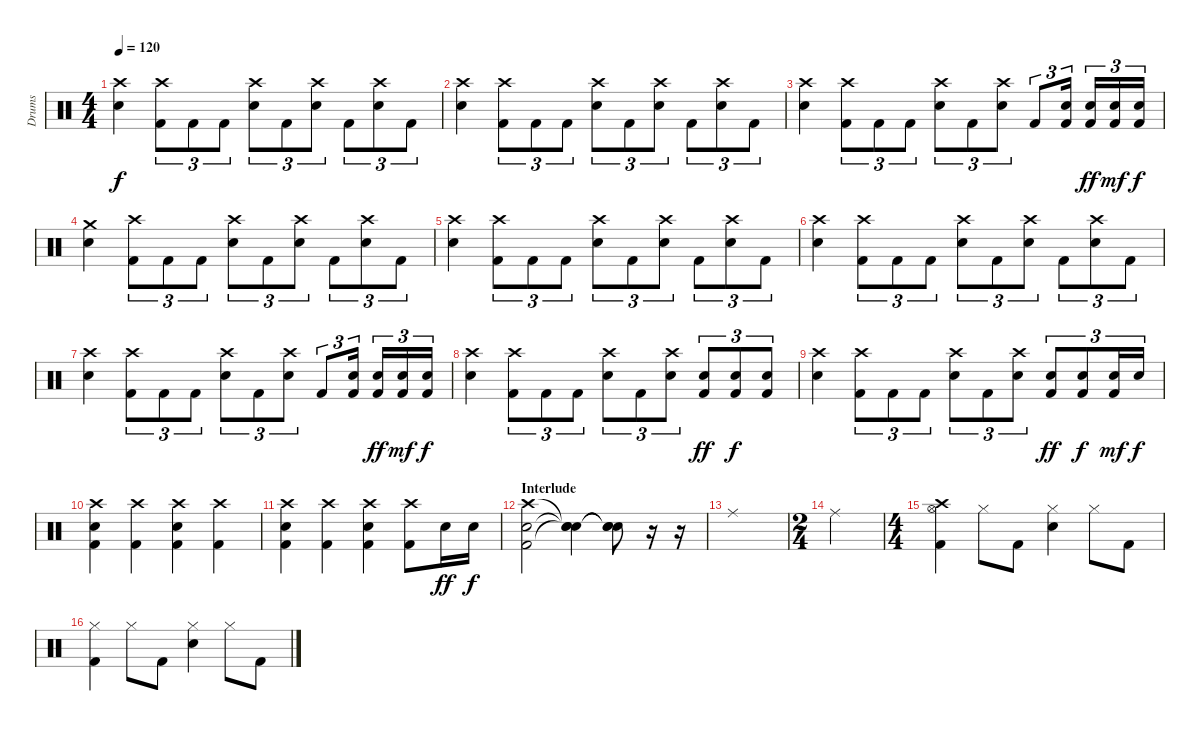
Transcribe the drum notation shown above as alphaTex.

\track ("Drums" "Drums") {instrument percussion}
\staff {score}
\articulation defaults
\ts (4 4)
\tempo 120
\clef neutral
\ks c
("Crash high (hit)" "Electric Snare (hit)").4{dy f} ("Crash high (hit)" "Kick (hit) 2").8{tu (3 2)} "Kick (hit) 2".8{tu (3 2)} "Kick (hit) 2".8{tu (3 2)} ("Crash high (hit)" "Electric Snare (hit)").8{tu (3 2)} "Kick (hit) 2".8{tu (3 2)} ("Crash high (hit)" "Electric Snare (hit)").8{tu (3 2)} "Kick (hit) 2".8{tu (3 2)} ("Crash high (hit)" "Electric Snare (hit)").8{tu (3 2)} "Kick (hit) 2".8{tu (3 2)} |
("Crash high (hit)" "Electric Snare (hit)").4 ("Crash high (hit)" "Kick (hit) 2").8{tu (3 2)} "Kick (hit) 2".8{tu (3 2)} "Kick (hit) 2".8{tu (3 2)} ("Crash high (hit)" "Electric Snare (hit)").8{tu (3 2)} "Kick (hit) 2".8{tu (3 2)} ("Crash high (hit)" "Electric Snare (hit)").8{tu (3 2)} "Kick (hit) 2".8{tu (3 2)} ("Crash high (hit)" "Electric Snare (hit)").8{tu (3 2)} "Kick (hit) 2".8{tu (3 2)} |
("Crash high (hit)" "Electric Snare (hit)").4 ("Crash high (hit)" "Kick (hit) 2").8{tu (3 2)} "Kick (hit) 2".8{tu (3 2)} "Kick (hit) 2".8{tu (3 2)} ("Crash high (hit)" "Electric Snare (hit)").8{tu (3 2)} "Kick (hit) 2".8{tu (3 2)} ("Crash high (hit)" "Electric Snare (hit)").8{tu (3 2)} "Kick (hit) 2".8{tu (3 2)} ("Electric Snare (hit)" "Kick (hit) 2").16{tu (3 2)} ("Electric Snare (hit)" "Kick (hit) 2").16{tu (3 2) dy ff} ("Electric Snare (hit)" "Kick (hit) 2").16{tu (3 2) dy mf} ("Electric Snare (hit)" "Kick (hit) 2").16{tu (3 2) dy f} |
("Crash medium (hit)" "Electric Snare (hit)").4 ("Crash high (hit)" "Kick (hit) 2").8{tu (3 2)} "Kick (hit) 2".8{tu (3 2)} "Kick (hit) 2".8{tu (3 2)} ("Crash high (hit)" "Electric Snare (hit)").8{tu (3 2)} "Kick (hit) 2".8{tu (3 2)} ("Crash high (hit)" "Electric Snare (hit)").8{tu (3 2)} "Kick (hit) 2".8{tu (3 2)} ("Crash high (hit)" "Electric Snare (hit)").8{tu (3 2)} "Kick (hit) 2".8{tu (3 2)} |
("Crash high (hit)" "Electric Snare (hit)").4 ("Crash high (hit)" "Kick (hit) 2").8{tu (3 2)} "Kick (hit) 2".8{tu (3 2)} "Kick (hit) 2".8{tu (3 2)} ("Crash high (hit)" "Electric Snare (hit)").8{tu (3 2)} "Kick (hit) 2".8{tu (3 2)} ("Crash high (hit)" "Electric Snare (hit)").8{tu (3 2)} "Kick (hit) 2".8{tu (3 2)} ("Crash high (hit)" "Electric Snare (hit)").8{tu (3 2)} "Kick (hit) 2".8{tu (3 2)} |
("Crash high (hit)" "Electric Snare (hit)").4 ("Crash high (hit)" "Kick (hit) 2").8{tu (3 2)} "Kick (hit) 2".8{tu (3 2)} "Kick (hit) 2".8{tu (3 2)} ("Crash high (hit)" "Electric Snare (hit)").8{tu (3 2)} "Kick (hit) 2".8{tu (3 2)} ("Crash high (hit)" "Electric Snare (hit)").8{tu (3 2)} "Kick (hit) 2".8{tu (3 2)} ("Crash high (hit)" "Electric Snare (hit)").8{tu (3 2)} "Kick (hit) 2".8{tu (3 2)} |
("Crash high (hit)" "Electric Snare (hit)").4 ("Crash high (hit)" "Kick (hit) 2").8{tu (3 2)} "Kick (hit) 2".8{tu (3 2)} "Kick (hit) 2".8{tu (3 2)} ("Crash high (hit)" "Electric Snare (hit)").8{tu (3 2)} "Kick (hit) 2".8{tu (3 2)} ("Crash high (hit)" "Electric Snare (hit)").8{tu (3 2)} "Kick (hit) 2".8{tu (3 2)} ("Electric Snare (hit)" "Kick (hit) 2").16{tu (3 2)} ("Electric Snare (hit)" "Kick (hit) 2").16{tu (3 2) dy ff} ("Electric Snare (hit)" "Kick (hit) 2").16{tu (3 2) dy mf} ("Electric Snare (hit)" "Kick (hit) 2").16{tu (3 2) dy f} |
("Crash high (hit)" "Electric Snare (hit)").4 ("Crash high (hit)" "Kick (hit) 2").8{tu (3 2)} "Kick (hit) 2".8{tu (3 2)} "Kick (hit) 2".8{tu (3 2)} ("Crash high (hit)" "Electric Snare (hit)").8{tu (3 2)} "Kick (hit) 2".8{tu (3 2)} ("Crash high (hit)" "Electric Snare (hit)").8{tu (3 2)} ("Electric Snare (hit)" "Kick (hit) 2").8{tu (3 2) dy ff} ("Electric Snare (hit)" "Kick (hit) 2").8{tu (3 2) dy f} ("Electric Snare (hit)" "Kick (hit) 2").8{tu (3 2)} |
("Crash high (hit)" "Electric Snare (hit)").4 ("Crash high (hit)" "Kick (hit) 2").8{tu (3 2)} "Kick (hit) 2".8{tu (3 2)} "Kick (hit) 2".8{tu (3 2)} ("Crash high (hit)" "Electric Snare (hit)").8{tu (3 2)} "Kick (hit) 2".8{tu (3 2)} ("Crash high (hit)" "Electric Snare (hit)").8{tu (3 2)} ("Electric Snare (hit)" "Kick (hit) 2").8{tu (3 2) dy ff} ("Electric Snare (hit)" "Kick (hit) 2").8{tu (3 2) dy f} ("Electric Snare (hit)" "Kick (hit) 2").16{tu (3 2) dy mf} "Electric Snare (hit)".16{tu (3 2) dy f} |
("Crash high (hit)" "Electric Snare (hit)" "Kick (hit) 2").4 ("Crash high (hit)" "Kick (hit) 2").4 ("Crash high (hit)" "Electric Snare (hit)" "Kick (hit) 2").4 ("Crash high (hit)" "Kick (hit) 2").4 |
("Crash high (hit)" "Electric Snare (hit)" "Kick (hit) 2").4 ("Crash high (hit)" "Kick (hit) 2").4 ("Crash high (hit)" "Electric Snare (hit)" "Kick (hit) 2").4 ("Crash high (hit)" "Kick (hit) 2").8 "Electric Snare (hit)".16{dy ff} "Electric Snare (hit)".16{dy f} |
\section ("" "Interlude")
("Crash high (hit)" "Electric Snare (hit)" "Kick (hit) 2").2 ("Snare (hit)"{t} "Snare (hit)"{t} "Snare (hit)"{t}).4 ("Snare (hit)"{t} "Electric Snare (hit)"{t} "Snare (hit)"{t}).8 r.16 r.16 |
"Ride (middle)".1 |
\ts (2 4)
"Ride (middle)".2 |
\ts (4 4)
("Hi-Hat (open)" "Crash high (hit)" "Kick (hit) 2").4 "Hi-Hat (closed)".8 "Kick (hit) 2".8 ("Hi-Hat (closed)" "Electric Snare (hit)").4 "Hi-Hat (closed)".8 "Kick (hit) 2".8 |
("Hi-Hat (closed)" "Kick (hit) 2").4 "Hi-Hat (closed)".8 "Kick (hit) 2".8 ("Hi-Hat (closed)" "Electric Snare (hit)").4 "Hi-Hat (closed)".8 "Kick (hit) 2".8
